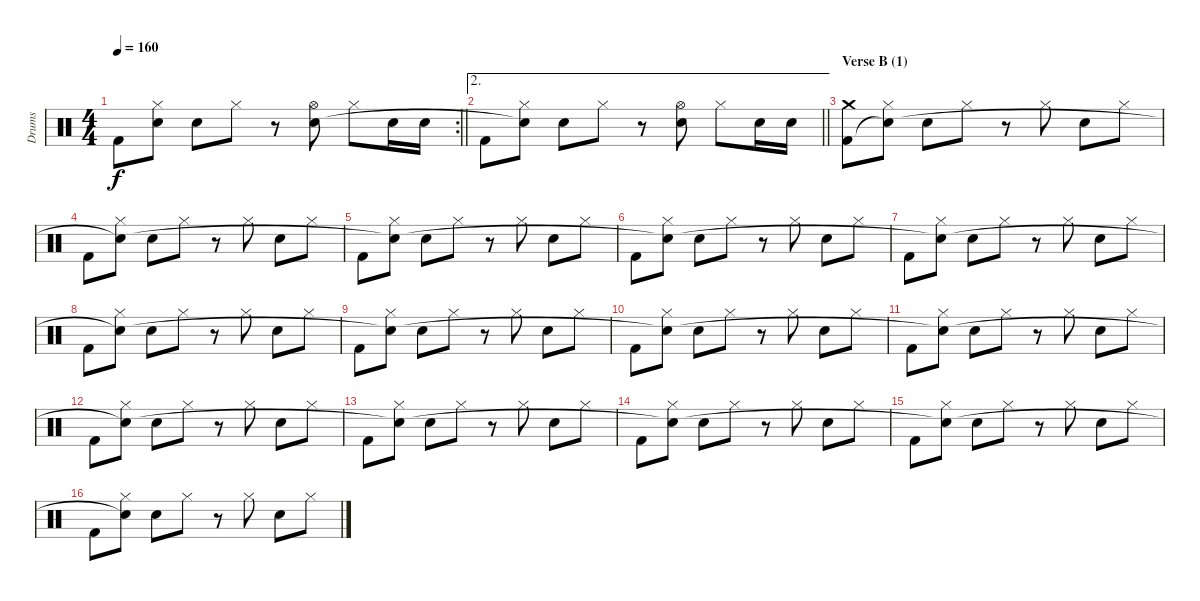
\track ("Drums" "Drums") {instrument percussion}
\staff {score}
\articulation defaults
\rc 2
\ts (4 4)
\tempo 160
\clef neutral
\barLineRight lightlight
\ks c "Kick (hit) 2".8{dy f}
("Hi-Hat (closed)" "Snare (hit)"{t}).8 "Electric Snare (hit)".8 "Hi-Hat (closed)".8 r.8 ("Hi-Hat (open)" "Electric Snare (hit)").8 "Hi-Hat (closed)".8 "Electric Snare (hit)".16 "Electric Snare (hit)".16 |
\ae 2
\barLineRight lightlight "Kick (hit) 2".8
("Hi-Hat (closed)" "Snare (hit)"{t}).8 "Electric Snare (hit)".8 "Hi-Hat (closed)".8 r.8 ("Hi-Hat (open)" "Electric Snare (hit)").8 "Hi-Hat (closed)".8 "Electric Snare (hit)".16 "Electric Snare (hit)".16 |
\section ("" "Verse B (1)")
("Crash medium (hit)" "Kick (hit) 2").8 ("Hi-Hat (closed)" "Snare (hit)"{t}).8 "Electric Snare (hit)".8 "Hi-Hat (closed)".8 r.8 "Hi-Hat (closed)".8 "Electric Snare (hit)".8 "Hi-Hat (closed)".8 |
"Kick (hit) 2".8 ("Hi-Hat (closed)" "Snare (hit)"{t}).8 "Electric Snare (hit)".8 "Hi-Hat (closed)".8 r.8 "Hi-Hat (closed)".8 "Electric Snare (hit)".8 "Hi-Hat (closed)".8 |
"Kick (hit) 2".8 ("Hi-Hat (closed)" "Snare (hit)"{t}).8 "Electric Snare (hit)".8 "Hi-Hat (closed)".8 r.8 "Hi-Hat (closed)".8 "Electric Snare (hit)".8 "Hi-Hat (closed)".8 |
"Kick (hit) 2".8 ("Hi-Hat (closed)" "Snare (hit)"{t}).8 "Electric Snare (hit)".8 "Hi-Hat (closed)".8 r.8 "Hi-Hat (closed)".8 "Electric Snare (hit)".8 "Hi-Hat (closed)".8 |
"Kick (hit) 2".8 ("Hi-Hat (closed)" "Snare (hit)"{t}).8 "Electric Snare (hit)".8 "Hi-Hat (closed)".8 r.8 "Hi-Hat (closed)".8 "Electric Snare (hit)".8 "Hi-Hat (closed)".8 |
"Kick (hit) 2".8 ("Hi-Hat (closed)" "Snare (hit)"{t}).8 "Electric Snare (hit)".8 "Hi-Hat (closed)".8 r.8 "Hi-Hat (closed)".8 "Electric Snare (hit)".8 "Hi-Hat (closed)".8 |
"Kick (hit) 2".8 ("Hi-Hat (closed)" "Snare (hit)"{t}).8 "Electric Snare (hit)".8 "Hi-Hat (closed)".8 r.8 "Hi-Hat (closed)".8 "Electric Snare (hit)".8 "Hi-Hat (closed)".8 |
"Kick (hit) 2".8 ("Hi-Hat (closed)" "Snare (hit)"{t}).8 "Electric Snare (hit)".8 "Hi-Hat (closed)".8 r.8 "Hi-Hat (closed)".8 "Electric Snare (hit)".8 "Hi-Hat (closed)".8 |
"Kick (hit) 2".8 ("Hi-Hat (closed)" "Snare (hit)"{t}).8 "Electric Snare (hit)".8 "Hi-Hat (closed)".8 r.8 "Hi-Hat (closed)".8 "Electric Snare (hit)".8 "Hi-Hat (closed)".8 |
"Kick (hit) 2".8 ("Hi-Hat (closed)" "Snare (hit)"{t}).8 "Electric Snare (hit)".8 "Hi-Hat (closed)".8 r.8 "Hi-Hat (closed)".8 "Electric Snare (hit)".8 "Hi-Hat (closed)".8 |
"Kick (hit) 2".8 ("Hi-Hat (closed)" "Snare (hit)"{t}).8 "Electric Snare (hit)".8 "Hi-Hat (closed)".8 r.8 "Hi-Hat (closed)".8 "Electric Snare (hit)".8 "Hi-Hat (closed)".8 |
"Kick (hit) 2".8 ("Hi-Hat (closed)" "Snare (hit)"{t}).8 "Electric Snare (hit)".8 "Hi-Hat (closed)".8 r.8 "Hi-Hat (closed)".8 "Electric Snare (hit)".8 "Hi-Hat (closed)".8 |
"Kick (hit) 2".8 ("Hi-Hat (closed)" "Snare (hit)"{t}).8 "Electric Snare (hit)".8 "Hi-Hat (closed)".8 r.8 "Hi-Hat (closed)".8 "Electric Snare (hit)".8 "Hi-Hat (closed)".8 |
"Kick (hit) 2".8 ("Hi-Hat (closed)" "Snare (hit)"{t}).8 "Electric Snare (hit)".8 "Hi-Hat (closed)".8 r.8 "Hi-Hat (closed)".8 "Electric Snare (hit)".8 "Hi-Hat (closed)".8
